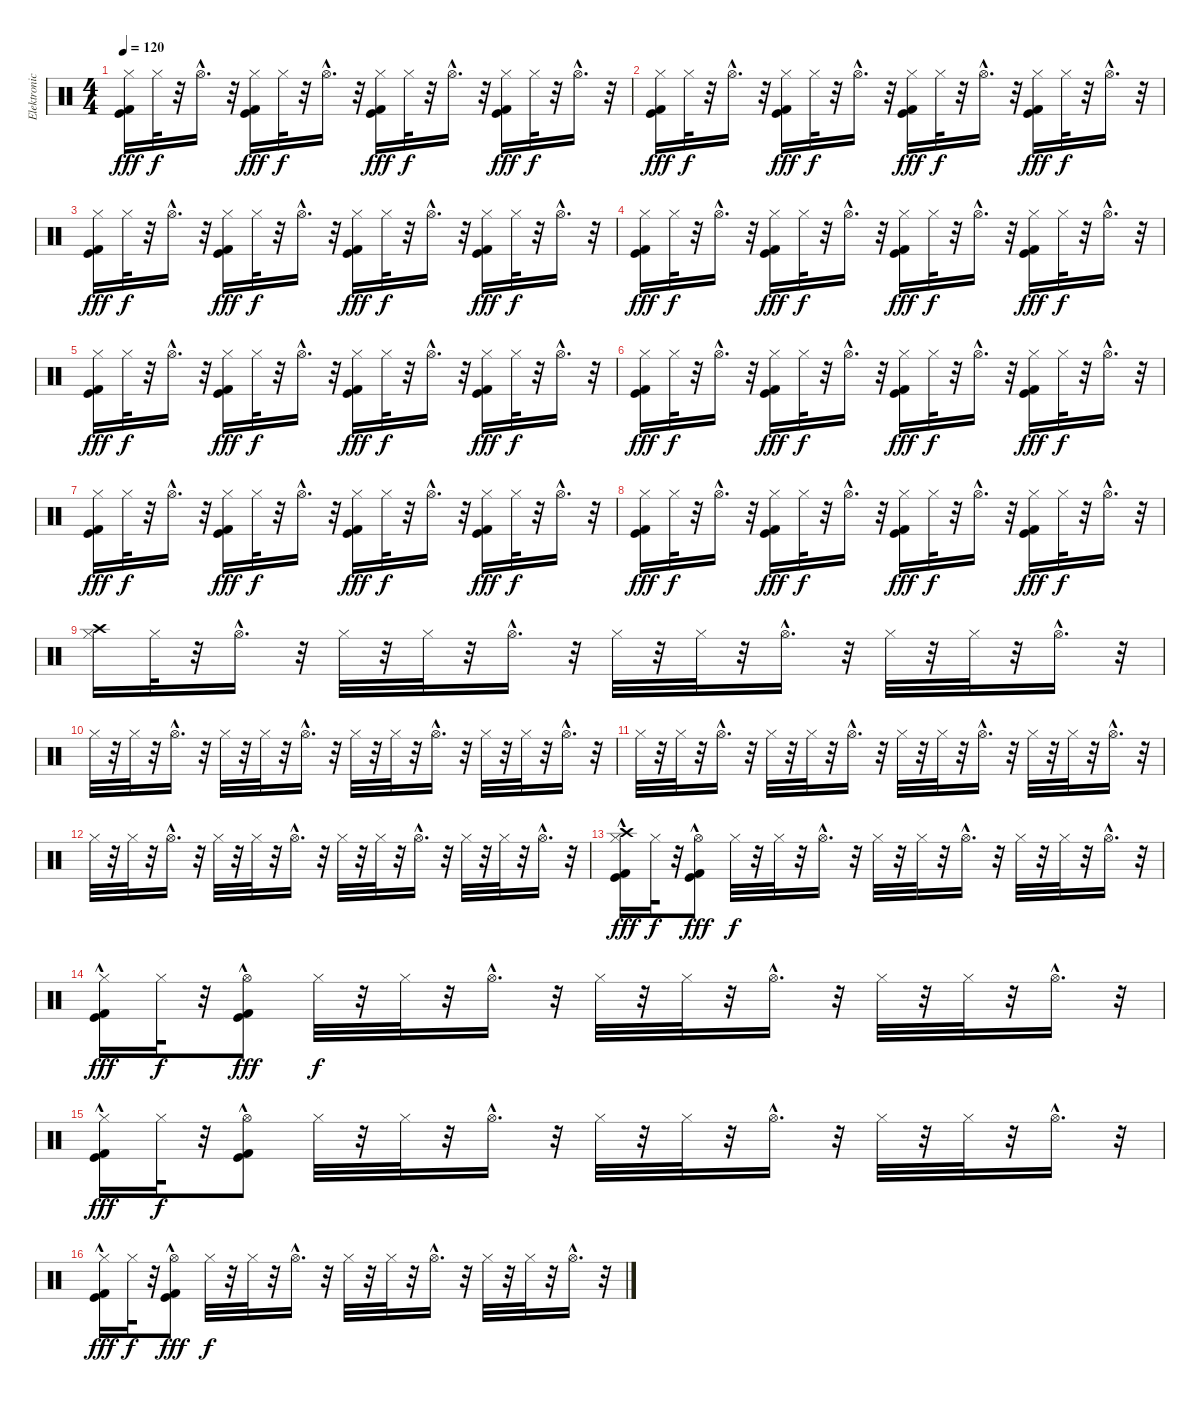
\track ("Elektronické bicí 2" "Elektronic") {instrument percussion}
\staff {score}
\articulation defaults
\ts (4 4)
\tempo 120
\clef neutral
\ks c
("Hi-Hat (closed)" "Kick (hit) 2" "Kick (hit)").16{dy fff} "Hi-Hat (closed)".32{dy f} r.32 "Hi-Hat (open)"{hac}.16{d} r.32 ("Hi-Hat (closed)" "Kick (hit) 2" "Kick (hit)").16{dy fff} "Hi-Hat (closed)".32{dy f} r.32 "Hi-Hat (open)"{hac}.16{d} r.32 ("Hi-Hat (closed)" "Kick (hit) 2" "Kick (hit)").16{dy fff} "Hi-Hat (closed)".32{dy f} r.32 "Hi-Hat (open)"{hac}.16{d} r.32 ("Hi-Hat (closed)" "Kick (hit) 2" "Kick (hit)").16{dy fff} "Hi-Hat (closed)".32{dy f} r.32 "Hi-Hat (open)"{hac}.16{d} r.32 |
("Hi-Hat (closed)" "Kick (hit) 2" "Kick (hit)").16{dy fff} "Hi-Hat (closed)".32{dy f} r.32 "Hi-Hat (open)"{hac}.16{d} r.32 ("Hi-Hat (closed)" "Kick (hit) 2" "Kick (hit)").16{dy fff} "Hi-Hat (closed)".32{dy f} r.32 "Hi-Hat (open)"{hac}.16{d} r.32 ("Hi-Hat (closed)" "Kick (hit) 2" "Kick (hit)").16{dy fff} "Hi-Hat (closed)".32{dy f} r.32 "Hi-Hat (open)"{hac}.16{d} r.32 ("Hi-Hat (closed)" "Kick (hit) 2" "Kick (hit)").16{dy fff} "Hi-Hat (closed)".32{dy f} r.32 "Hi-Hat (open)"{hac}.16{d} r.32 |
("Hi-Hat (closed)" "Kick (hit) 2" "Kick (hit)").16{dy fff} "Hi-Hat (closed)".32{dy f} r.32 "Hi-Hat (open)"{hac}.16{d} r.32 ("Hi-Hat (closed)" "Kick (hit) 2" "Kick (hit)").16{dy fff} "Hi-Hat (closed)".32{dy f} r.32 "Hi-Hat (open)"{hac}.16{d} r.32 ("Hi-Hat (closed)" "Kick (hit) 2" "Kick (hit)").16{dy fff} "Hi-Hat (closed)".32{dy f} r.32 "Hi-Hat (open)"{hac}.16{d} r.32 ("Hi-Hat (closed)" "Kick (hit) 2" "Kick (hit)").16{dy fff} "Hi-Hat (closed)".32{dy f} r.32 "Hi-Hat (open)"{hac}.16{d} r.32 |
("Hi-Hat (closed)" "Kick (hit) 2" "Kick (hit)").16{dy fff} "Hi-Hat (closed)".32{dy f} r.32 "Hi-Hat (open)"{hac}.16{d} r.32 ("Hi-Hat (closed)" "Kick (hit) 2" "Kick (hit)").16{dy fff} "Hi-Hat (closed)".32{dy f} r.32 "Hi-Hat (open)"{hac}.16{d} r.32 ("Hi-Hat (closed)" "Kick (hit) 2" "Kick (hit)").16{dy fff} "Hi-Hat (closed)".32{dy f} r.32 "Hi-Hat (open)"{hac}.16{d} r.32 ("Hi-Hat (closed)" "Kick (hit) 2" "Kick (hit)").16{dy fff} "Hi-Hat (closed)".32{dy f} r.32 "Hi-Hat (open)"{hac}.16{d} r.32 |
("Hi-Hat (closed)" "Kick (hit) 2" "Kick (hit)").16{dy fff} "Hi-Hat (closed)".32{dy f} r.32 "Hi-Hat (open)"{hac}.16{d} r.32 ("Hi-Hat (closed)" "Kick (hit) 2" "Kick (hit)").16{dy fff} "Hi-Hat (closed)".32{dy f} r.32 "Hi-Hat (open)"{hac}.16{d} r.32 ("Hi-Hat (closed)" "Kick (hit) 2" "Kick (hit)").16{dy fff} "Hi-Hat (closed)".32{dy f} r.32 "Hi-Hat (open)"{hac}.16{d} r.32 ("Hi-Hat (closed)" "Kick (hit) 2" "Kick (hit)").16{dy fff} "Hi-Hat (closed)".32{dy f} r.32 "Hi-Hat (open)"{hac}.16{d} r.32 |
("Hi-Hat (closed)" "Kick (hit) 2" "Kick (hit)").16{dy fff} "Hi-Hat (closed)".32{dy f} r.32 "Hi-Hat (open)"{hac}.16{d} r.32 ("Hi-Hat (closed)" "Kick (hit) 2" "Kick (hit)").16{dy fff} "Hi-Hat (closed)".32{dy f} r.32 "Hi-Hat (open)"{hac}.16{d} r.32 ("Hi-Hat (closed)" "Kick (hit) 2" "Kick (hit)").16{dy fff} "Hi-Hat (closed)".32{dy f} r.32 "Hi-Hat (open)"{hac}.16{d} r.32 ("Hi-Hat (closed)" "Kick (hit) 2" "Kick (hit)").16{dy fff} "Hi-Hat (closed)".32{dy f} r.32 "Hi-Hat (open)"{hac}.16{d} r.32 |
("Hi-Hat (closed)" "Kick (hit) 2" "Kick (hit)").16{dy fff} "Hi-Hat (closed)".32{dy f} r.32 "Hi-Hat (open)"{hac}.16{d} r.32 ("Hi-Hat (closed)" "Kick (hit) 2" "Kick (hit)").16{dy fff} "Hi-Hat (closed)".32{dy f} r.32 "Hi-Hat (open)"{hac}.16{d} r.32 ("Hi-Hat (closed)" "Kick (hit) 2" "Kick (hit)").16{dy fff} "Hi-Hat (closed)".32{dy f} r.32 "Hi-Hat (open)"{hac}.16{d} r.32 ("Hi-Hat (closed)" "Kick (hit) 2" "Kick (hit)").16{dy fff} "Hi-Hat (closed)".32{dy f} r.32 "Hi-Hat (open)"{hac}.16{d} r.32 |
("Hi-Hat (closed)" "Kick (hit) 2" "Kick (hit)").16{dy fff} "Hi-Hat (closed)".32{dy f} r.32 "Hi-Hat (open)"{hac}.16{d} r.32 ("Hi-Hat (closed)" "Kick (hit) 2" "Kick (hit)").16{dy fff} "Hi-Hat (closed)".32{dy f} r.32 "Hi-Hat (open)"{hac}.16{d} r.32 ("Hi-Hat (closed)" "Kick (hit) 2" "Kick (hit)").16{dy fff} "Hi-Hat (closed)".32{dy f} r.32 "Hi-Hat (open)"{hac}.16{d} r.32 ("Hi-Hat (closed)" "Kick (hit) 2" "Kick (hit)").16{dy fff} "Hi-Hat (closed)".32{dy f} r.32 "Hi-Hat (open)"{hac}.16{d} r.32 |
("Crash high (hit)" "Hi-Hat (closed)").16 "Hi-Hat (closed)".32 r.32 "Hi-Hat (open)"{hac}.16{d} r.32 "Hi-Hat (closed)".32 r.32 "Hi-Hat (closed)".32 r.32 "Hi-Hat (open)"{hac}.16{d} r.32 "Hi-Hat (closed)".32 r.32 "Hi-Hat (closed)".32 r.32 "Hi-Hat (open)"{hac}.16{d} r.32 "Hi-Hat (closed)".32 r.32 "Hi-Hat (closed)".32 r.32 "Hi-Hat (open)"{hac}.16{d} r.32 |
"Hi-Hat (closed)".32 r.32 "Hi-Hat (closed)".32 r.32 "Hi-Hat (open)"{hac}.16{d} r.32 "Hi-Hat (closed)".32 r.32 "Hi-Hat (closed)".32 r.32 "Hi-Hat (open)"{hac}.16{d} r.32 "Hi-Hat (closed)".32 r.32 "Hi-Hat (closed)".32 r.32 "Hi-Hat (open)"{hac}.16{d} r.32 "Hi-Hat (closed)".32 r.32 "Hi-Hat (closed)".32 r.32 "Hi-Hat (open)"{hac}.16{d} r.32 |
"Hi-Hat (closed)".32 r.32 "Hi-Hat (closed)".32 r.32 "Hi-Hat (open)"{hac}.16{d} r.32 "Hi-Hat (closed)".32 r.32 "Hi-Hat (closed)".32 r.32 "Hi-Hat (open)"{hac}.16{d} r.32 "Hi-Hat (closed)".32 r.32 "Hi-Hat (closed)".32 r.32 "Hi-Hat (open)"{hac}.16{d} r.32 "Hi-Hat (closed)".32 r.32 "Hi-Hat (closed)".32 r.32 "Hi-Hat (open)"{hac}.16{d} r.32 |
"Hi-Hat (closed)".32 r.32 "Hi-Hat (closed)".32 r.32 "Hi-Hat (open)"{hac}.16{d} r.32 "Hi-Hat (closed)".32 r.32 "Hi-Hat (closed)".32 r.32 "Hi-Hat (open)"{hac}.16{d} r.32 "Hi-Hat (closed)".32 r.32 "Hi-Hat (closed)".32 r.32 "Hi-Hat (open)"{hac}.16{d} r.32 "Hi-Hat (closed)".32 r.32 "Hi-Hat (closed)".32 r.32 "Hi-Hat (open)"{hac}.16{d} r.32 |
("Crash high (hit)" "Hi-Hat (closed)" "Kick (hit) 2"{hac} "Kick (hit)"{hac}).16{dy fff} "Hi-Hat (closed)".32{dy f} r.32 ("Hi-Hat (open)"{hac} "Kick (hit) 2" "Kick (hit)").8{dy fff} "Hi-Hat (closed)".32{dy f} r.32 "Hi-Hat (closed)".32 r.32 "Hi-Hat (open)"{hac}.16{d} r.32 "Hi-Hat (closed)".32 r.32 "Hi-Hat (closed)".32 r.32 "Hi-Hat (open)"{hac}.16{d} r.32 "Hi-Hat (closed)".32 r.32 "Hi-Hat (closed)".32 r.32 "Hi-Hat (open)"{hac}.16{d} r.32 |
("Hi-Hat (closed)" "Kick (hit) 2"{hac} "Kick (hit)"{hac}).16{dy fff} "Hi-Hat (closed)".32{dy f} r.32 ("Hi-Hat (open)"{hac} "Kick (hit) 2" "Kick (hit)").8{dy fff} "Hi-Hat (closed)".32{dy f} r.32 "Hi-Hat (closed)".32 r.32 "Hi-Hat (open)"{hac}.16{d} r.32 "Hi-Hat (closed)".32 r.32 "Hi-Hat (closed)".32 r.32 "Hi-Hat (open)"{hac}.16{d} r.32 "Hi-Hat (closed)".32 r.32 "Hi-Hat (closed)".32 r.32 "Hi-Hat (open)"{hac}.16{d} r.32 |
("Hi-Hat (closed)" "Kick (hit) 2"{hac} "Kick (hit)"{hac}).16{dy fff} "Hi-Hat (closed)".32{dy f} r.32 ("Hi-Hat (open)"{hac} "Kick (hit)" "Kick (hit) 2").8 "Hi-Hat (closed)".32 r.32 "Hi-Hat (closed)".32 r.32 "Hi-Hat (open)"{hac}.16{d} r.32 "Hi-Hat (closed)".32 r.32 "Hi-Hat (closed)".32 r.32 "Hi-Hat (open)"{hac}.16{d} r.32 "Hi-Hat (closed)".32 r.32 "Hi-Hat (closed)".32 r.32 "Hi-Hat (open)"{hac}.16{d} r.32 |
("Hi-Hat (closed)" "Kick (hit) 2"{hac} "Kick (hit)"{hac}).16{dy fff} "Hi-Hat (closed)".32{dy f} r.32 ("Hi-Hat (open)"{hac} "Kick (hit) 2" "Kick (hit)").8{dy fff} "Hi-Hat (closed)".32{dy f} r.32 "Hi-Hat (closed)".32 r.32 "Hi-Hat (open)"{hac}.16{d} r.32 "Hi-Hat (closed)".32 r.32 "Hi-Hat (closed)".32 r.32 "Hi-Hat (open)"{hac}.16{d} r.32 "Hi-Hat (closed)".32 r.32 "Hi-Hat (closed)".32 r.32 "Hi-Hat (open)"{hac}.16{d} r.32
